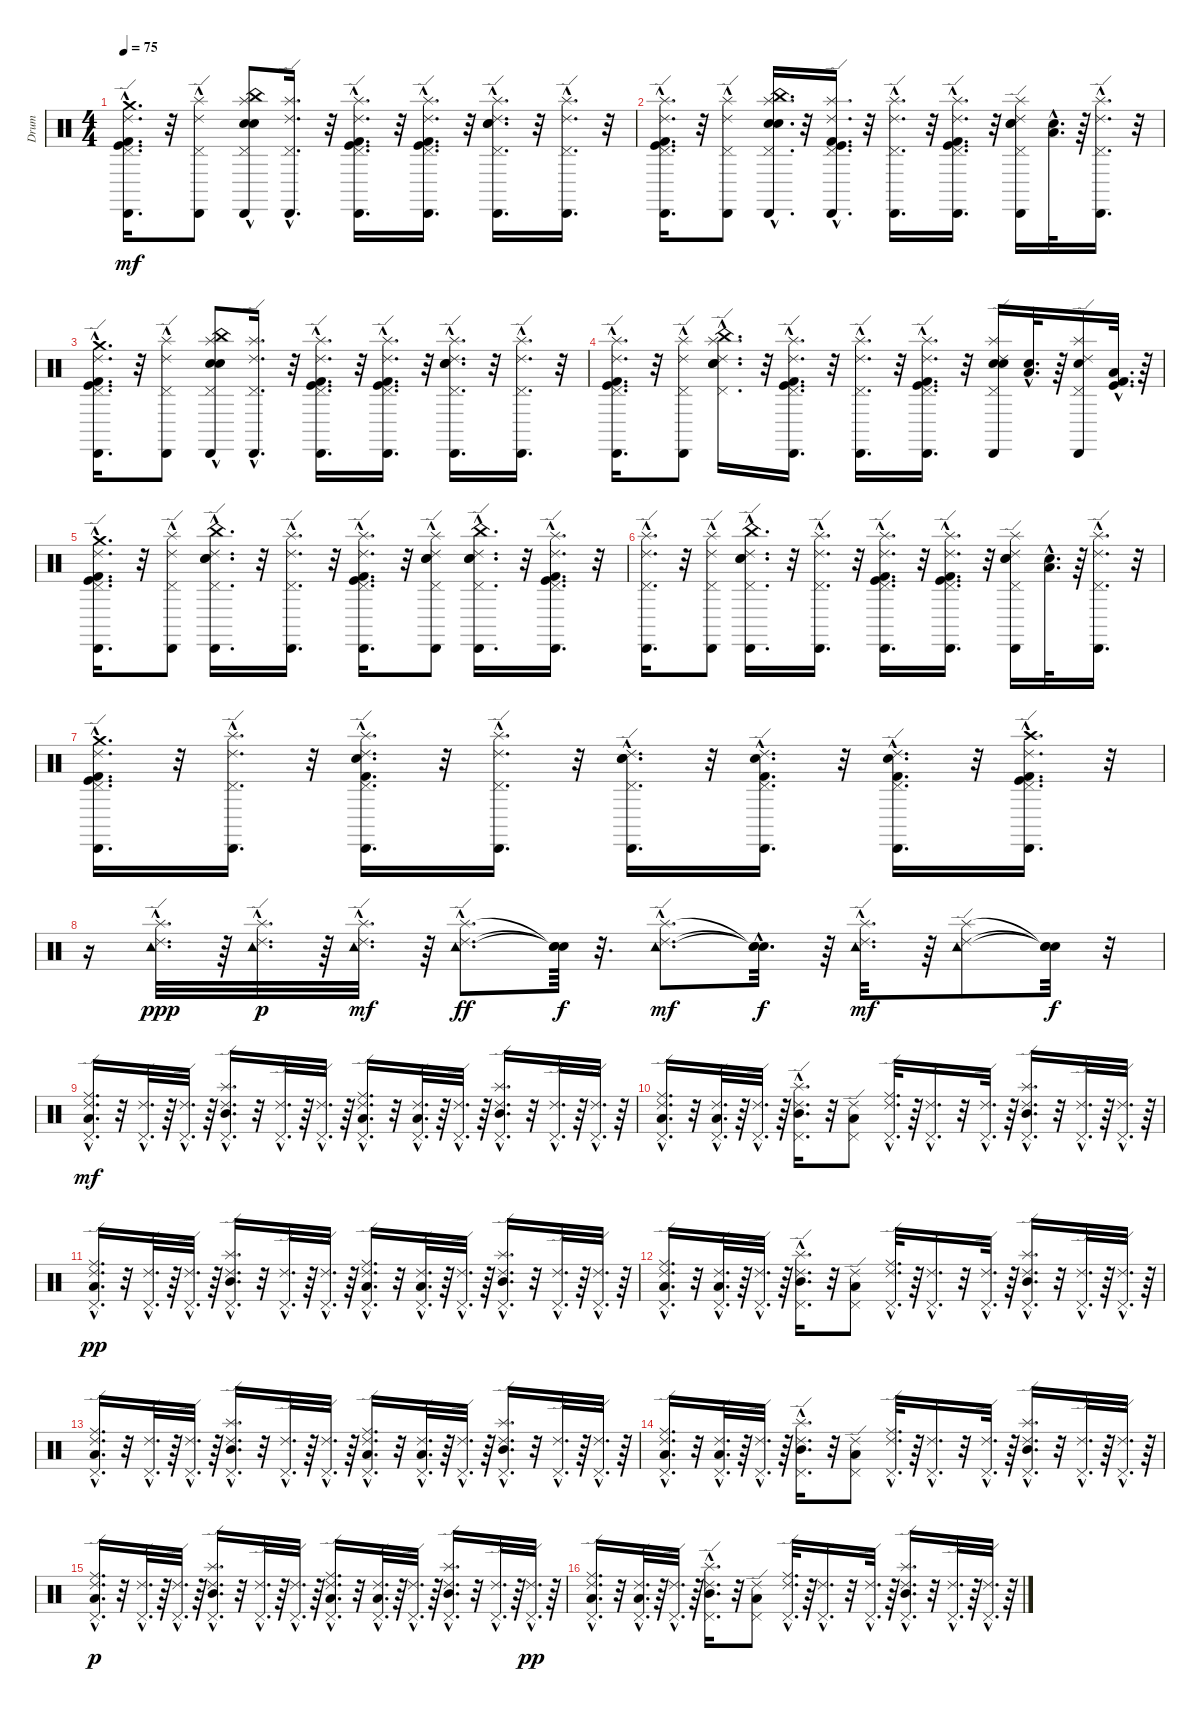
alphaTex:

\track ("Drum" "Drum") {instrument percussion}
\staff {score}
\articulation defaults
\ts (4 4)
\tempo 75
\clef neutral
\ks c
("Ride (edge) 2"{hac} "Cabasa (hit)"{hac} "Pedal Hi-Hat (hit)"{hac} "Kick (hit)"{hac} "Kick (hit) 2"{hac} "Crash medium (hit)"{hac}).16{d dy mf} r.32 ("Splash (hit)"{hac} "Ride (edge) 2"{hac} "Cabasa (hit)"{hac} "Pedal Hi-Hat (hit)"{hac}).8 ("Splash (hit)"{hac} "Cabasa (hit)"{hac} "Pedal Hi-Hat (hit)"{hac} "Snare (hit) 2"{hac} "Electric Snare (hit)"{hac} "China (hit)").8 ("Splash (hit)"{hac} "Ride (edge) 2"{hac} "Cabasa (hit)"{hac} "Pedal Hi-Hat (hit)"{hac}).16{d} r.32 ("Splash (hit)"{hac} "Ride (edge) 2"{hac} "Cabasa (hit)"{hac} "Pedal Hi-Hat (hit)"{hac} "Kick (hit)"{hac} "Kick (hit) 2"{hac}).16{d} r.32 ("Splash (hit)"{hac} "Ride (edge) 2"{hac} "Cabasa (hit)"{hac} "Pedal Hi-Hat (hit)"{hac} "Kick (hit)"{hac} "Kick (hit) 2"{hac}).16{d} r.32 ("Splash (hit)"{hac} "Ride (edge) 2"{hac} "Cabasa (hit)"{hac} "Pedal Hi-Hat (hit)"{hac} "Snare (hit) 2"{hac} "Electric Snare (hit)"{hac}).16{d} r.32 ("Splash (hit)"{hac} "Ride (edge) 2"{hac} "Cabasa (hit)"{hac} "Pedal Hi-Hat (hit)"{hac}).16{d} r.32 |
("Splash (hit)"{hac} "Ride (edge) 2"{hac} "Cabasa (hit)"{hac} "Pedal Hi-Hat (hit)"{hac} "Kick (hit)"{hac} "Kick (hit) 2"{hac}).16{d} r.32 ("Splash (hit)"{hac} "Ride (edge) 2"{hac} "Cabasa (hit)"{hac} "Pedal Hi-Hat (hit)"{hac}).8 ("Splash (hit)"{hac} "Cabasa (hit)"{hac} "Pedal Hi-Hat (hit)"{hac} "Snare (hit) 2"{hac} "Electric Snare (hit)"{hac} "China (hit)"{hac}).16{d} r.32 ("Splash (hit)"{hac} "Kick (hit)"{hac} "Kick (hit) 2"{hac} "Ride (edge) 2"{hac} "Cabasa (hit)"{hac} "Pedal Hi-Hat (hit)"{hac}).16{d} r.32 ("Splash (hit)"{hac} "Ride (edge) 2"{hac} "Cabasa (hit)"{hac} "Pedal Hi-Hat (hit)"{hac}).16{d} r.32 ("Ride (edge) 2"{hac} "Cabasa (hit)"{hac} "Pedal Hi-Hat (hit)"{hac} "Kick (hit)"{hac} "Kick (hit) 2"{hac} "Splash (hit)"{hac}).16{d} r.32 ("Splash (hit)" "Ride (edge) 2" "Cabasa (hit)" "Pedal Hi-Hat (hit)" "Snare (hit) 2" "Electric Snare (hit)").16 ("Low Tom (hit)"{hac} "Electric Snare (hit)"{hac}).32{d} r.64 ("Splash (hit)"{hac} "Cabasa (hit)"{hac} "Ride (edge) 2"{hac} "Pedal Hi-Hat (hit)"{hac}).16{d} r.32 |
("Ride (edge) 2"{hac} "Cabasa (hit)"{hac} "Pedal Hi-Hat (hit)"{hac} "Kick (hit)"{hac} "Kick (hit) 2"{hac} "Crash medium (hit)"{hac}).16{d} r.32 ("Splash (hit)"{hac} "Ride (edge) 2"{hac} "Cabasa (hit)"{hac} "Pedal Hi-Hat (hit)"{hac}).8 ("Splash (hit)"{hac} "Cabasa (hit)"{hac} "Pedal Hi-Hat (hit)"{hac} "Snare (hit) 2"{hac} "Electric Snare (hit)"{hac} "China (hit)").8 ("Splash (hit)"{hac} "Ride (edge) 2"{hac} "Cabasa (hit)"{hac} "Pedal Hi-Hat (hit)"{hac}).16{d} r.32 ("Splash (hit)"{hac} "Ride (edge) 2"{hac} "Cabasa (hit)"{hac} "Pedal Hi-Hat (hit)"{hac} "Kick (hit)"{hac} "Kick (hit) 2"{hac}).16{d} r.32 ("Splash (hit)"{hac} "Ride (edge) 2"{hac} "Cabasa (hit)"{hac} "Pedal Hi-Hat (hit)"{hac} "Kick (hit)"{hac} "Kick (hit) 2"{hac}).16{d} r.32 ("Splash (hit)"{hac} "Ride (edge) 2"{hac} "Cabasa (hit)"{hac} "Pedal Hi-Hat (hit)"{hac} "Snare (hit) 2"{hac} "Electric Snare (hit)"{hac}).16{d} r.32 ("Splash (hit)"{hac} "Ride (edge) 2"{hac} "Cabasa (hit)"{hac} "Pedal Hi-Hat (hit)"{hac}).16{d} r.32 |
("Splash (hit)"{hac} "Kick (hit) 2"{hac} "Kick (hit)"{hac} "Pedal Hi-Hat (hit)"{hac} "Cabasa (hit)"{hac} "Ride (edge) 2"{hac}).16{d} r.32 ("Splash (hit)"{hac} "Pedal Hi-Hat (hit)"{hac} "Cabasa (hit)"{hac} "Ride (edge) 2"{hac}).8 ("Splash (hit)"{hac} "Ride (edge) 2"{hac} "China (hit)"{hac} "Electric Snare (hit)"{hac} "Snare (hit) 2"{hac} "Pedal Hi-Hat (hit)"{hac}).16{d} r.32 ("Pedal Hi-Hat (hit)"{hac} "Cabasa (hit)"{hac} "Ride (edge) 2"{hac} "Kick (hit) 2"{hac} "Kick (hit)"{hac} "Splash (hit)"{hac}).16{d} r.32 ("Splash (hit)"{hac} "Pedal Hi-Hat (hit)"{hac} "Cabasa (hit)"{hac} "Ride (edge) 2"{hac}).16{d} r.32 ("Splash (hit)"{hac} "Kick (hit) 2"{hac} "Kick (hit)"{hac} "Pedal Hi-Hat (hit)"{hac} "Cabasa (hit)"{hac} "Ride (edge) 2"{hac}).16{d} r.32 ("Splash (hit)" "Electric Snare (hit)" "Snare (hit) 2" "Pedal Hi-Hat (hit)" "Cabasa (hit)" "Ride (edge) 2").16 ("Electric Snare (hit)"{hac} "Low Tom (hit)"{hac}).32{d} r.64 ("Splash (hit)" "Snare (hit) 2" "Pedal Hi-Hat (hit)" "Ride (edge) 2" "Cabasa (hit)").16 ("Low Floor Tom (hit)"{hac} "Kick (hit)"{hac} "Kick (hit) 2"{hac}).32{d} r.64 |
("Crash medium (hit)"{hac} "Kick (hit) 2"{hac} "Kick (hit)"{hac} "Pedal Hi-Hat (hit)"{hac} "Cabasa (hit)"{hac} "Ride (edge) 2"{hac}).16{d} r.32 ("Pedal Hi-Hat (hit)"{hac} "Cabasa (hit)"{hac} "Ride (edge) 2"{hac} "Splash (hit)"{hac}).8 ("Ride (edge) 2"{hac} "China (hit)"{hac} "Electric Snare (hit)"{hac} "Snare (hit) 2"{hac} "Pedal Hi-Hat (hit)"{hac} "Cabasa (hit)"{hac}).16{d} r.32 ("Pedal Hi-Hat (hit)"{hac} "Cabasa (hit)"{hac} "Ride (edge) 2"{hac} "Splash (hit)"{hac}).16{d} r.32 ("Kick (hit) 2"{hac} "Kick (hit)"{hac} "Pedal Hi-Hat (hit)"{hac} "Cabasa (hit)"{hac} "Ride (edge) 2"{hac} "Splash (hit)"{hac}).16{d} r.32 ("Snare (hit) 2"{hac} "Electric Snare (hit)"{hac} "Pedal Hi-Hat (hit)"{hac} "Cabasa (hit)"{hac} "Ride (edge) 2"{hac} "Splash (hit)"{hac}).8 ("China (hit)"{hac} "Electric Snare (hit)"{hac} "Snare (hit) 2"{hac} "Pedal Hi-Hat (hit)"{hac} "Cabasa (hit)"{hac} "Ride (edge) 2"{hac}).16{d} r.32 ("Kick (hit) 2"{hac} "Kick (hit)"{hac} "Pedal Hi-Hat (hit)"{hac} "Cabasa (hit)"{hac} "Ride (edge) 2"{hac} "Splash (hit)"{hac}).16{d} r.32 |
("Pedal Hi-Hat (hit)"{hac} "Cabasa (hit)"{hac} "Ride (edge) 2"{hac} "Splash (hit)"{hac}).16{d} r.32 ("Pedal Hi-Hat (hit)"{hac} "Cabasa (hit)"{hac} "Ride (edge) 2"{hac} "Splash (hit)"{hac}).8 ("Snare (hit) 2"{hac} "Ride (edge) 2"{hac} "China (hit)"{hac} "Electric Snare (hit)"{hac} "Pedal Hi-Hat (hit)"{hac} "Cabasa (hit)"{hac}).16{d} r.32 ("Pedal Hi-Hat (hit)"{hac} "Cabasa (hit)"{hac} "Ride (edge) 2"{hac} "Splash (hit)"{hac}).16{d} r.32 ("Kick (hit) 2"{hac} "Kick (hit)"{hac} "Pedal Hi-Hat (hit)"{hac} "Cabasa (hit)"{hac} "Ride (edge) 2"{hac} "Splash (hit)"{hac}).16{d} r.32 ("Splash (hit)"{hac} "Kick (hit) 2"{hac} "Kick (hit)"{hac} "Pedal Hi-Hat (hit)"{hac} "Cabasa (hit)"{hac} "Ride (edge) 2"{hac}).16{d} r.32 ("Electric Snare (hit)" "Snare (hit) 2" "Pedal Hi-Hat (hit)" "Cabasa (hit)" "Ride (edge) 2" "Splash (hit)").16 ("Electric Snare (hit)"{hac} "Low Tom (hit)"{hac}).32{d} r.64 ("Pedal Hi-Hat (hit)"{hac} "Ride (edge) 2"{hac} "Cabasa (hit)"{hac} "Splash (hit)"{hac}).16{d} r.32 |
("Crash medium (hit)"{hac} "Kick (hit) 2"{hac} "Kick (hit)"{hac} "Pedal Hi-Hat (hit)"{hac} "Cabasa (hit)"{hac} "Ride (edge) 2"{hac}).16{d} r.32 ("Pedal Hi-Hat (hit)"{hac} "Cabasa (hit)"{hac} "Ride (edge) 2"{hac} "Splash (hit)"{hac}).16{d} r.32 ("Kick (hit) 2"{hac} "Electric Snare (hit)"{hac} "Ride (edge) 2"{hac} "Pedal Hi-Hat (hit)"{hac} "Cabasa (hit)"{hac} "Splash (hit)"{hac}).16{d} r.32 ("Splash (hit)"{hac} "Pedal Hi-Hat (hit)"{hac} "Cabasa (hit)"{hac} "Ride (edge) 2"{hac}).16{d} r.32 ("Ride (edge) 2"{hac} "Snare (hit) 2"{hac} "Electric Snare (hit)"{hac} "Pedal Hi-Hat (hit)"{hac} "Cabasa (hit)"{hac}).16{d} r.32 ("Electric Snare (hit)"{hac} "Kick (hit) 2"{hac} "Pedal Hi-Hat (hit)"{hac} "Cabasa (hit)"{hac} "Ride (edge) 2"{hac}).16{d} r.32 ("Electric Snare (hit)"{hac} "Kick (hit) 2"{hac} "Pedal Hi-Hat (hit)"{hac} "Cabasa (hit)"{hac} "Ride (edge) 2"{hac}).16{d} r.32 ("Kick (hit) 2"{hac} "Kick (hit)"{hac} "Crash high (hit)"{hac} "Pedal Hi-Hat (hit)"{hac} "Cabasa (hit)"{hac} "Ride (edge) 2"{hac}).16{d} r.32 |
r.16 ("Tambourine (hit)"{hac} "Splash (hit)"{hac} "Ride (edge) 2"{hac}).32{d dy ppp} r.64 ("Tambourine (hit)"{hac} "Splash (hit)"{hac} "Ride (edge) 2"{hac}).32{d dy p} r.64 ("Tambourine (hit)"{hac} "Splash (hit)"{hac} "Ride (edge) 2"{hac}).32{d dy mf} r.64 ("Tambourine (hit)"{hac} "Splash (hit)"{hac} "Ride (edge) 2"{hac}).8{d dy ff} ("Snare (hit)"{t} "Snare (hit)"{t} "Snare (hit)"{t}).64{dy f} r.32{d} ("Tambourine (hit)"{hac} "Ride (edge) 2"{hac} "Splash (hit)"{hac}).8{d dy mf} ("Snare (hit)"{hac t} "Snare (hit)"{hac t} "Snare (hit)"{hac t}).32{d dy f} r.64 ("Tambourine (hit)"{hac} "Splash (hit)"{hac} "Ride (edge) 2"{hac}).32{d dy mf} r.64 ("Tambourine (hit)" "Splash (hit)" "Ride (edge) 2").8 ("Snare (hit)"{t} "Snare (hit)"{t} "Snare (hit)"{t}).32{dy f} r.32 |
("Low Tom (hit)"{hac} "Pedal Hi-Hat (hit)"{hac} "Ride (edge) 2"{hac} "Ride (middle)"{hac}).16{d dy mf} r.32 ("Pedal Hi-Hat (hit)"{hac} "Ride (edge) 2"{hac}).32{d} r.64 ("Pedal Hi-Hat (hit)"{hac} "Ride (edge) 2"{hac}).32{d} r.64 ("Mid Tom (hit)"{hac} "Splash (hit)"{hac} "Pedal Hi-Hat (hit)"{hac} "Ride (edge) 2"{hac}).16{d} r.32 ("Pedal Hi-Hat (hit)"{hac} "Ride (edge) 2"{hac}).32{d} r.64 ("Pedal Hi-Hat (hit)"{hac} "Ride (edge) 2"{hac}).32{d} r.64 ("Low Tom (hit)"{hac} "Pedal Hi-Hat (hit)"{hac} "Ride (edge) 2"{hac} "Ride (middle)"{hac}).16{d} r.32 ("Low Tom (hit)"{hac} "Pedal Hi-Hat (hit)"{hac} "Ride (edge) 2"{hac}).32{d} r.64 ("Pedal Hi-Hat (hit)"{hac} "Ride (edge) 2"{hac}).32{d} r.64 ("Mid Tom (hit)"{hac} "Splash (hit)"{hac} "Pedal Hi-Hat (hit)"{hac} "Ride (edge) 2"{hac}).16{d} r.32 ("Pedal Hi-Hat (hit)"{hac} "Ride (edge) 2"{hac}).32{d} r.64 ("Pedal Hi-Hat (hit)"{hac} "Ride (edge) 2"{hac}).32{d} r.64 |
("Low Tom (hit)"{hac} "Pedal Hi-Hat (hit)"{hac} "Ride (edge) 2"{hac} "Ride (middle)"{hac}).16{d} r.32 ("Low Tom (hit)"{hac} "Pedal Hi-Hat (hit)"{hac} "Ride (edge) 2"{hac}).32{d} r.64 ("Pedal Hi-Hat (hit)"{hac} "Ride (edge) 2"{hac}).32{d} r.64 ("Mid Tom (hit)"{hac} "Splash (hit)"{hac} "Pedal Hi-Hat (hit)"{hac} "Ride (edge) 2"{hac}).16{d} r.32 ("Low Tom (hit)" "Pedal Hi-Hat (hit)" "Ride (edge) 2").8 ("Pedal Hi-Hat (hit)"{hac} "Ride (edge) 2"{hac} "Ride (middle)"{hac}).32{d} r.64 ("Pedal Hi-Hat (hit)"{hac} "Ride (edge) 2"{hac}).16{d} r.32 ("Pedal Hi-Hat (hit)"{hac} "Ride (edge) 2"{hac}).32{d} r.64 ("Mid Tom (hit)"{hac} "Splash (hit)"{hac} "Pedal Hi-Hat (hit)"{hac} "Ride (edge) 2"{hac}).16{d} r.32 ("Pedal Hi-Hat (hit)"{hac} "Ride (edge) 2"{hac}).32{d} r.64 ("Pedal Hi-Hat (hit)"{hac} "Ride (edge) 2"{hac}).32{d} r.64 |
("Ride (edge) 2"{hac} "Pedal Hi-Hat (hit)"{hac} "Low Tom (hit)"{hac} "Ride (middle)"{hac}).16{d dy pp} r.32 ("Ride (edge) 2"{hac} "Pedal Hi-Hat (hit)"{hac}).32{d} r.64 ("Ride (edge) 2"{hac} "Pedal Hi-Hat (hit)"{hac}).32{d} r.64 ("Ride (edge) 2"{hac} "Pedal Hi-Hat (hit)"{hac} "Splash (hit)"{hac} "Mid Tom (hit)"{hac}).16{d} r.32 ("Ride (edge) 2"{hac} "Pedal Hi-Hat (hit)"{hac}).32{d} r.64 ("Ride (edge) 2"{hac} "Pedal Hi-Hat (hit)"{hac}).32{d} r.64 ("Ride (edge) 2"{hac} "Pedal Hi-Hat (hit)"{hac} "Low Tom (hit)"{hac} "Ride (middle)"{hac}).16{d} r.32 ("Ride (edge) 2"{hac} "Pedal Hi-Hat (hit)"{hac} "Low Tom (hit)"{hac}).32{d} r.64 ("Ride (edge) 2"{hac} "Pedal Hi-Hat (hit)"{hac}).32{d} r.64 ("Ride (edge) 2"{hac} "Pedal Hi-Hat (hit)"{hac} "Splash (hit)"{hac} "Mid Tom (hit)"{hac}).16{d} r.32 ("Ride (edge) 2"{hac} "Pedal Hi-Hat (hit)"{hac}).32{d} r.64 ("Ride (edge) 2"{hac} "Pedal Hi-Hat (hit)"{hac}).32{d} r.64 |
("Ride (edge) 2"{hac} "Pedal Hi-Hat (hit)"{hac} "Low Tom (hit)"{hac} "Ride (middle)"{hac}).16{d} r.32 ("Ride (edge) 2"{hac} "Pedal Hi-Hat (hit)"{hac} "Low Tom (hit)"{hac}).32{d} r.64 ("Ride (edge) 2"{hac} "Pedal Hi-Hat (hit)"{hac}).32{d} r.64 ("Ride (edge) 2"{hac} "Pedal Hi-Hat (hit)"{hac} "Splash (hit)"{hac} "Mid Tom (hit)"{hac}).16{d} r.32 ("Ride (edge) 2" "Pedal Hi-Hat (hit)" "Low Tom (hit)").8 ("Ride (edge) 2"{hac} "Pedal Hi-Hat (hit)"{hac} "Ride (middle)"{hac}).32{d} r.64 ("Ride (edge) 2"{hac} "Pedal Hi-Hat (hit)"{hac}).16{d} r.32 ("Ride (edge) 2"{hac} "Pedal Hi-Hat (hit)"{hac}).32{d} r.64 ("Ride (edge) 2"{hac} "Pedal Hi-Hat (hit)"{hac} "Splash (hit)"{hac} "Mid Tom (hit)"{hac}).16{d} r.32 ("Ride (edge) 2"{hac} "Pedal Hi-Hat (hit)"{hac}).32{d} r.64 ("Ride (edge) 2"{hac} "Pedal Hi-Hat (hit)"{hac}).32{d} r.64 |
("Ride (middle)"{hac} "Ride (edge) 2"{hac} "Pedal Hi-Hat (hit)"{hac} "Low Tom (hit)"{hac}).16{d} r.32 ("Ride (edge) 2"{hac} "Pedal Hi-Hat (hit)"{hac}).32{d} r.64 ("Ride (edge) 2"{hac} "Pedal Hi-Hat (hit)"{hac}).32{d} r.64 ("Ride (edge) 2"{hac} "Pedal Hi-Hat (hit)"{hac} "Splash (hit)"{hac} "Mid Tom (hit)"{hac}).16{d} r.32 ("Ride (edge) 2"{hac} "Pedal Hi-Hat (hit)"{hac}).32{d} r.64 ("Ride (edge) 2"{hac} "Pedal Hi-Hat (hit)"{hac}).32{d} r.64 ("Ride (middle)"{hac} "Ride (edge) 2"{hac} "Pedal Hi-Hat (hit)"{hac} "Low Tom (hit)"{hac}).16{d} r.32 ("Ride (edge) 2"{hac} "Pedal Hi-Hat (hit)"{hac} "Low Tom (hit)"{hac}).32{d} r.64 ("Ride (edge) 2"{hac} "Pedal Hi-Hat (hit)"{hac}).32{d} r.64 ("Ride (edge) 2"{hac} "Pedal Hi-Hat (hit)"{hac} "Splash (hit)"{hac} "Mid Tom (hit)"{hac}).16{d} r.32 ("Ride (edge) 2"{hac} "Pedal Hi-Hat (hit)"{hac}).32{d} r.64 ("Ride (edge) 2"{hac} "Pedal Hi-Hat (hit)"{hac}).32{d} r.64 |
("Ride (middle)"{hac} "Ride (edge) 2"{hac} "Pedal Hi-Hat (hit)"{hac} "Low Tom (hit)"{hac}).16{d} r.32 ("Ride (edge) 2"{hac} "Pedal Hi-Hat (hit)"{hac} "Low Tom (hit)"{hac}).32{d} r.64 ("Ride (edge) 2"{hac} "Pedal Hi-Hat (hit)"{hac}).32{d} r.64 ("Ride (edge) 2"{hac} "Pedal Hi-Hat (hit)"{hac} "Splash (hit)"{hac} "Mid Tom (hit)"{hac}).16{d} r.32 ("Ride (edge) 2" "Pedal Hi-Hat (hit)" "Low Tom (hit)").8 ("Ride (middle)"{hac} "Ride (edge) 2"{hac} "Pedal Hi-Hat (hit)"{hac}).32{d} r.64 ("Ride (edge) 2"{hac} "Pedal Hi-Hat (hit)"{hac}).16{d} r.32 ("Ride (edge) 2"{hac} "Pedal Hi-Hat (hit)"{hac}).32{d} r.64 ("Ride (edge) 2"{hac} "Pedal Hi-Hat (hit)"{hac} "Splash (hit)"{hac} "Mid Tom (hit)"{hac}).16{d} r.32 ("Ride (edge) 2"{hac} "Pedal Hi-Hat (hit)"{hac}).32{d} r.64 ("Ride (edge) 2"{hac} "Pedal Hi-Hat (hit)"{hac}).32{d} r.64 |
("Ride (middle)"{hac} "Low Tom (hit)"{hac} "Pedal Hi-Hat (hit)"{hac} "Ride (edge) 2"{hac}).16{d dy p} r.32 ("Pedal Hi-Hat (hit)"{hac} "Ride (edge) 2"{hac}).32{d} r.64 ("Pedal Hi-Hat (hit)"{hac} "Ride (edge) 2"{hac}).32{d} r.64 ("Mid Tom (hit)"{hac} "Splash (hit)"{hac} "Pedal Hi-Hat (hit)"{hac} "Ride (edge) 2"{hac}).16{d} r.32 ("Pedal Hi-Hat (hit)"{hac} "Ride (edge) 2"{hac}).32{d} r.64 ("Pedal Hi-Hat (hit)"{hac} "Ride (edge) 2"{hac}).32{d} r.64 ("Ride (middle)"{hac} "Low Tom (hit)"{hac} "Pedal Hi-Hat (hit)"{hac} "Ride (edge) 2"{hac}).16{d} r.32 ("Low Tom (hit)"{hac} "Pedal Hi-Hat (hit)"{hac} "Ride (edge) 2"{hac}).32{d} r.64 ("Pedal Hi-Hat (hit)"{hac} "Ride (edge) 2"{hac}).32{d} r.64 ("Mid Tom (hit)"{hac} "Splash (hit)"{hac} "Pedal Hi-Hat (hit)"{hac} "Ride (edge) 2"{hac}).16{d} r.32 ("Pedal Hi-Hat (hit)"{hac} "Ride (edge) 2"{hac}).32{d} r.64 ("Pedal Hi-Hat (hit)"{hac} "Ride (edge) 2"{hac}).32{d dy pp} r.64 |
("Ride (middle)"{hac} "Low Tom (hit)"{hac} "Pedal Hi-Hat (hit)"{hac} "Ride (edge) 2"{hac}).16{d} r.32 ("Low Tom (hit)"{hac} "Pedal Hi-Hat (hit)"{hac} "Ride (edge) 2"{hac}).32{d} r.64 ("Pedal Hi-Hat (hit)"{hac} "Ride (edge) 2"{hac}).32{d} r.64 ("Mid Tom (hit)"{hac} "Splash (hit)"{hac} "Pedal Hi-Hat (hit)"{hac} "Ride (edge) 2"{hac}).16{d} r.32 ("Low Tom (hit)" "Pedal Hi-Hat (hit)" "Ride (edge) 2").8 ("Ride (middle)"{hac} "Pedal Hi-Hat (hit)"{hac} "Ride (edge) 2"{hac}).32{d} r.64 ("Pedal Hi-Hat (hit)"{hac} "Ride (edge) 2"{hac}).16{d} r.32 ("Pedal Hi-Hat (hit)"{hac} "Ride (edge) 2"{hac}).32{d} r.64 ("Mid Tom (hit)"{hac} "Splash (hit)"{hac} "Pedal Hi-Hat (hit)"{hac} "Ride (edge) 2"{hac}).16{d} r.32 ("Pedal Hi-Hat (hit)"{hac} "Ride (edge) 2"{hac}).32{d} r.64 ("Pedal Hi-Hat (hit)"{hac} "Ride (edge) 2"{hac}).32{d} r.64
